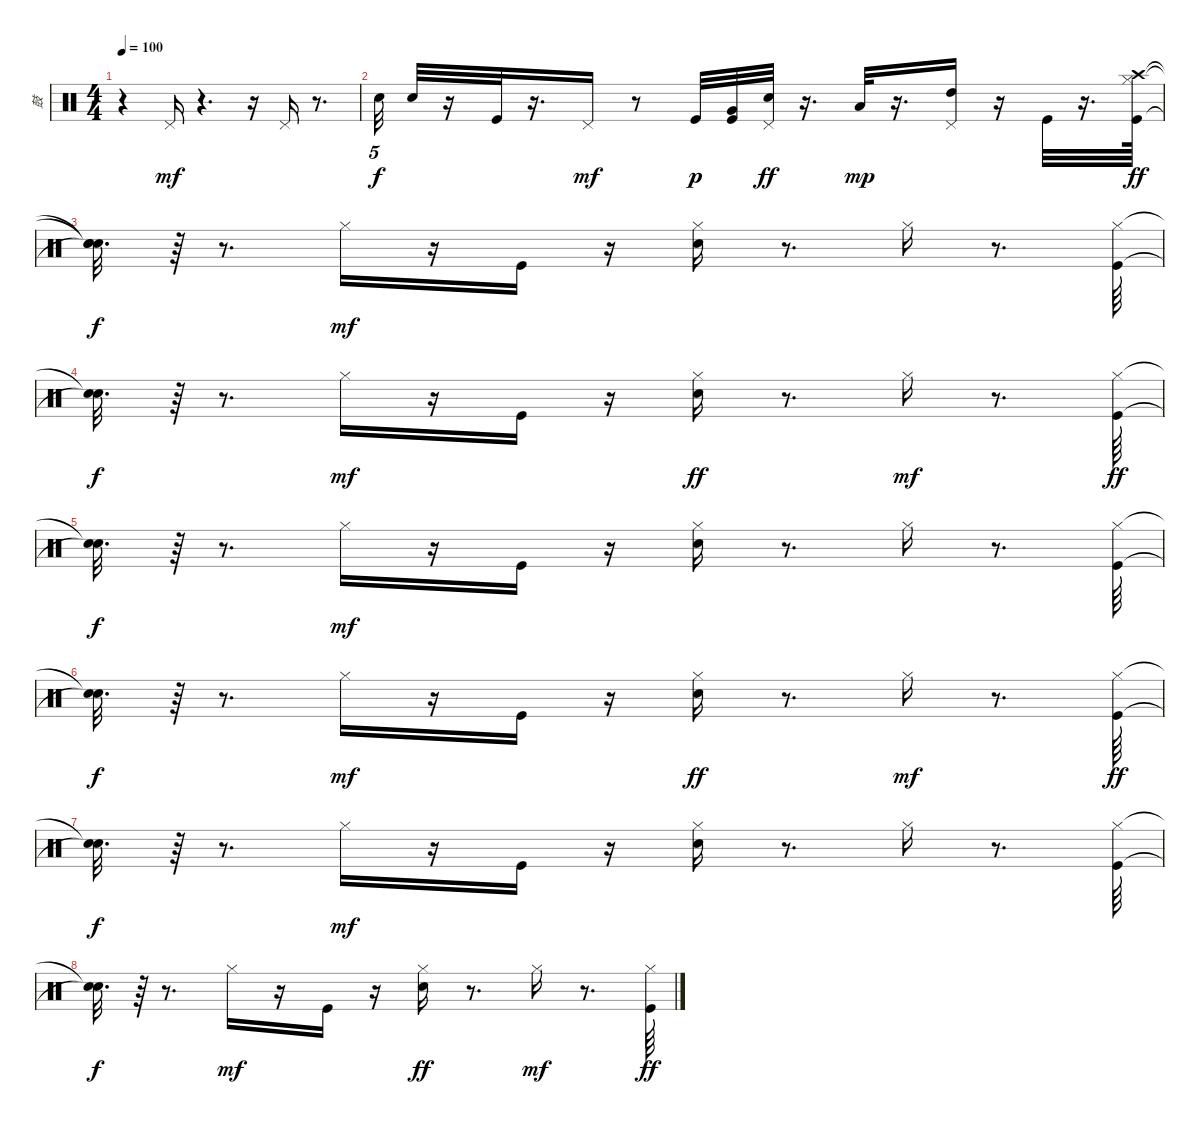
\track ("鼓" "鼓") {instrument percussion}
\staff {score}
\articulation defaults
\ts (4 4)
\tempo 100
\clef neutral
\ks c
r.4{dy mp} "Pedal Hi-Hat (hit)".16{dy mf} r.4{d} r.16 "Pedal Hi-Hat (hit)".16 r.8{d} |
"Electric Snare (hit)".32{tu (5 4) dy f} "Electric Snare (hit)".32 r.16 "Kick (hit)".32 r.16{d} "Pedal Hi-Hat (hit)".16{dy mf} r.8 "Kick (hit)".32{dy p} ("Kick (hit)" "Very Low Tom (hit)").32 ("Pedal Hi-Hat (hit)" "Electric Snare (hit)").32{dy ff} r.16{d} "Low Tom (hit)".32{dy mp} r.16{d} ("Pedal Hi-Hat (hit)" "High Tom (hit)").16 r.16 "Kick (hit)".32 r.16{d} ("Crash high (hit)" "Kick (hit)" "Hi-Hat (closed)").64{dy ff} |
("Snare (hit)"{t} "Snare (hit)"{t} "Snare (hit)"{t}).32{d dy f} r.64 r.8{d} "Hi-Hat (closed)".16{dy mf} r.16 "Kick (hit)".16 r.16 ("Electric Snare (hit)" "Hi-Hat (closed)").16 r.8{d} "Hi-Hat (closed)".16 r.8{d} ("Kick (hit)" "Hi-Hat (closed)").64 |
("Snare (hit)"{t} "Snare (hit)"{t}).32{d dy f} r.64 r.8{d} "Hi-Hat (closed)".16{dy mf} r.16 "Kick (hit)".16 r.16 ("Hi-Hat (closed)" "Electric Snare (hit)").16{dy ff} r.8{d} "Hi-Hat (closed)".16{dy mf} r.8{d} ("Kick (hit)" "Hi-Hat (closed)").64{dy ff} |
("Snare (hit)"{t} "Snare (hit)"{t}).32{d dy f} r.64 r.8{d} "Hi-Hat (closed)".16{dy mf} r.16 "Kick (hit)".16 r.16 ("Electric Snare (hit)" "Hi-Hat (closed)").16 r.8{d} "Hi-Hat (closed)".16 r.8{d} ("Kick (hit)" "Hi-Hat (closed)").64 |
("Snare (hit)"{t} "Snare (hit)"{t}).32{d dy f} r.64 r.8{d} "Hi-Hat (closed)".16{dy mf} r.16 "Kick (hit)".16 r.16 ("Hi-Hat (closed)" "Electric Snare (hit)").16{dy ff} r.8{d} "Hi-Hat (closed)".16{dy mf} r.8{d} ("Kick (hit)" "Hi-Hat (closed)").64{dy ff} |
("Snare (hit)"{t} "Snare (hit)"{t}).32{d dy f} r.64 r.8{d} "Hi-Hat (closed)".16{dy mf} r.16 "Kick (hit)".16 r.16 ("Electric Snare (hit)" "Hi-Hat (closed)").16 r.8{d} "Hi-Hat (closed)".16 r.8{d} ("Kick (hit)" "Hi-Hat (closed)").64 |
("Snare (hit)"{t} "Snare (hit)"{t}).32{d dy f} r.64 r.8{d} "Hi-Hat (closed)".16{dy mf} r.16 "Kick (hit)".16 r.16 ("Hi-Hat (closed)" "Electric Snare (hit)").16{dy ff} r.8{d} "Hi-Hat (closed)".16{dy mf} r.8{d} ("Kick (hit)" "Hi-Hat (closed)").64{dy ff}
